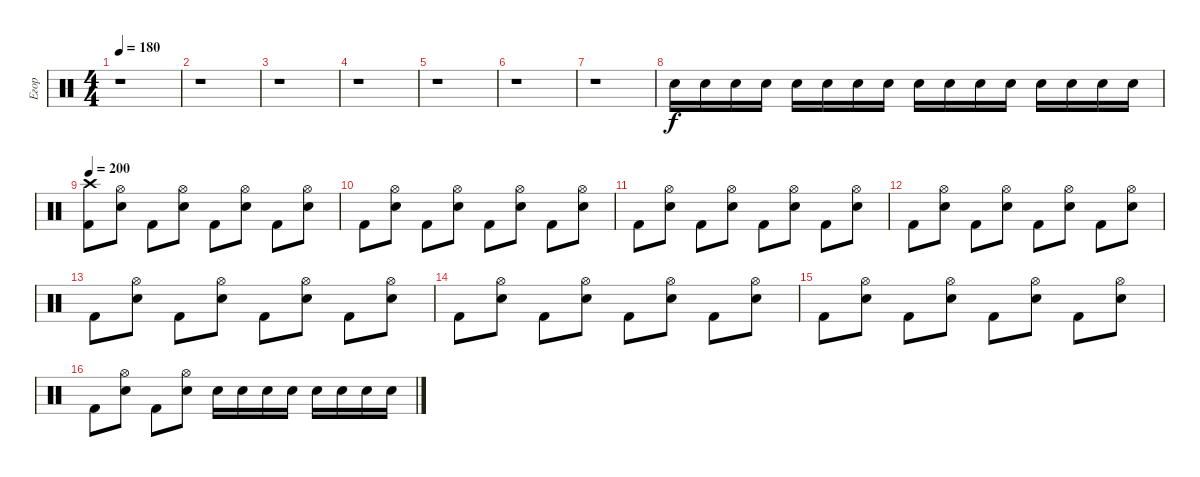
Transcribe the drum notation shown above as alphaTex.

\track ("Егор" "Егор") {instrument percussion}
\staff {score}
\articulation defaults
\ts (4 4)
\tempo 180
\clef neutral
\ks c
r.1{dy f} |
r.1 |
r.1 |
r.1 |
r.1 |
r.1 |
r.1 |
"Snare (hit) 2".16 "Snare (hit) 2".16 "Snare (hit) 2".16 "Snare (hit) 2".16 "Snare (hit) 2".16 "Snare (hit) 2".16 "Snare (hit) 2".16 "Snare (hit) 2".16 "Snare (hit) 2".16 "Snare (hit) 2".16 "Snare (hit) 2".16 "Snare (hit) 2".16 "Snare (hit) 2".16 "Snare (hit) 2".16 "Snare (hit) 2".16 "Snare (hit) 2".16 |
\tempo 200
("Crash high (hit)" "Kick (hit) 2").8 ("Hi-Hat (open)" "Snare (hit) 2").8 "Kick (hit) 2".8 ("Hi-Hat (open)" "Snare (hit) 2").8 "Kick (hit) 2".8 ("Hi-Hat (open)" "Snare (hit) 2").8 "Kick (hit) 2".8 ("Hi-Hat (open)" "Snare (hit) 2").8 |
"Kick (hit) 2".8 ("Hi-Hat (open)" "Snare (hit) 2").8 "Kick (hit) 2".8 ("Hi-Hat (open)" "Snare (hit) 2").8 "Kick (hit) 2".8 ("Hi-Hat (open)" "Snare (hit) 2").8 "Kick (hit) 2".8 ("Hi-Hat (open)" "Snare (hit) 2").8 |
"Kick (hit) 2".8 ("Hi-Hat (open)" "Snare (hit) 2").8 "Kick (hit) 2".8 ("Hi-Hat (open)" "Snare (hit) 2").8 "Kick (hit) 2".8 ("Hi-Hat (open)" "Snare (hit) 2").8 "Kick (hit) 2".8 ("Hi-Hat (open)" "Snare (hit) 2").8 |
"Kick (hit) 2".8 ("Hi-Hat (open)" "Snare (hit) 2").8 "Kick (hit) 2".8 ("Hi-Hat (open)" "Snare (hit) 2").8 "Kick (hit) 2".8 ("Hi-Hat (open)" "Snare (hit) 2").8 "Kick (hit) 2".8 ("Hi-Hat (open)" "Snare (hit) 2").8 |
"Kick (hit) 2".8 ("Hi-Hat (open)" "Snare (hit) 2").8 "Kick (hit) 2".8 ("Hi-Hat (open)" "Snare (hit) 2").8 "Kick (hit) 2".8 ("Hi-Hat (open)" "Snare (hit) 2").8 "Kick (hit) 2".8 ("Hi-Hat (open)" "Snare (hit) 2").8 |
"Kick (hit) 2".8 ("Hi-Hat (open)" "Snare (hit) 2").8 "Kick (hit) 2".8 ("Hi-Hat (open)" "Snare (hit) 2").8 "Kick (hit) 2".8 ("Hi-Hat (open)" "Snare (hit) 2").8 "Kick (hit) 2".8 ("Hi-Hat (open)" "Snare (hit) 2").8 |
"Kick (hit) 2".8 ("Hi-Hat (open)" "Snare (hit) 2").8 "Kick (hit) 2".8 ("Hi-Hat (open)" "Snare (hit) 2").8 "Kick (hit) 2".8 ("Hi-Hat (open)" "Snare (hit) 2").8 "Kick (hit) 2".8 ("Hi-Hat (open)" "Snare (hit) 2").8 |
"Kick (hit) 2".8 ("Hi-Hat (open)" "Snare (hit) 2").8 "Kick (hit) 2".8 ("Hi-Hat (open)" "Snare (hit) 2").8 "Snare (hit) 2".16 "Snare (hit) 2".16 "Snare (hit) 2".16 "Snare (hit) 2".16 "Snare (hit) 2".16 "Snare (hit) 2".16 "Snare (hit) 2".16 "Snare (hit) 2".16
